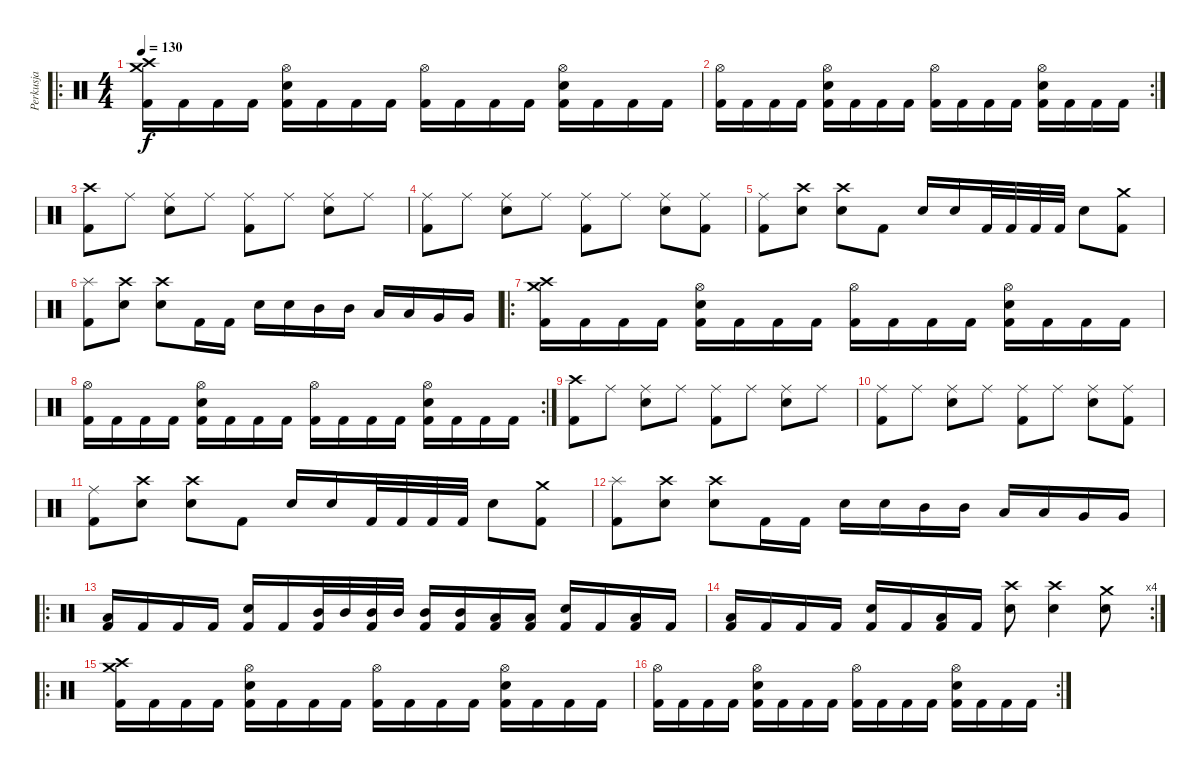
\track ("Perkusja" "Perkusja") {instrument percussion}
\staff {score}
\articulation defaults
\ro
\ts (4 4)
\tempo 130
\clef neutral
\ks c
("Kick (hit) 2" "Crash high (hit)" "Crash medium (hit)").16{dy f} "Kick (hit) 2".16 "Kick (hit) 2".16 "Kick (hit) 2".16 ("Kick (hit) 2" "Snare (hit) 2" "Hi-Hat (open)").16 "Kick (hit) 2".16 "Kick (hit) 2".16 "Kick (hit) 2".16 ("Kick (hit) 2" "Hi-Hat (open)").16 "Kick (hit) 2".16 "Kick (hit) 2".16 "Kick (hit) 2".16 ("Kick (hit) 2" "Snare (hit) 2" "Hi-Hat (open)").16 "Kick (hit) 2".16 "Kick (hit) 2".16 "Kick (hit) 2".16 |
\rc 2
("Kick (hit) 2" "Hi-Hat (open)").16 "Kick (hit) 2".16 "Kick (hit) 2".16 "Kick (hit) 2".16 ("Kick (hit) 2" "Snare (hit) 2" "Hi-Hat (open)").16 "Kick (hit) 2".16 "Kick (hit) 2".16 "Kick (hit) 2".16 ("Kick (hit) 2" "Hi-Hat (open)").16 "Kick (hit) 2".16 "Kick (hit) 2".16 "Kick (hit) 2".16 ("Kick (hit) 2" "Snare (hit) 2" "Hi-Hat (open)").16 "Kick (hit) 2".16 "Kick (hit) 2".16 "Kick (hit) 2".16 |
("Kick (hit) 2" "Crash high (hit)").8 "Ride (middle)".8 ("Snare (hit) 2" "Ride (middle)").8 "Ride (middle)".8 ("Kick (hit) 2" "Ride (middle)").8 "Ride (middle)".8 ("Snare (hit) 2" "Ride (middle)").8 "Ride (middle)".8 |
("Kick (hit) 2" "Ride (middle)").8 "Ride (middle)".8 ("Snare (hit) 2" "Ride (middle)").8 "Ride (middle)".8 ("Kick (hit) 2" "Ride (middle)").8 "Ride (middle)".8 ("Snare (hit) 2" "Ride (middle)").8 ("Kick (hit) 2" "Ride (middle)").8 |
("Ride (middle)" "Kick (hit) 2").8 ("Snare (hit) 2" "Crash high (hit)").8 ("Snare (hit) 2" "Crash high (hit)").8 "Kick (hit) 2".8 "Snare (hit) 2".16 "Snare (hit) 2".16 "Kick (hit) 2".32 "Kick (hit) 2".32 "Kick (hit) 2".32 "Kick (hit) 2".32 "Snare (hit) 2".8 ("Crash medium (hit)" "Kick (hit) 2").8 |
("Kick (hit) 2" "Splash (hit)").8 ("Snare (hit) 2" "Crash high (hit)").8 ("Snare (hit) 2" "Crash high (hit)").8 "Kick (hit) 2".16 "Kick (hit) 2".16 "Snare (hit) 2".16 "Snare (hit) 2".16 "Mid Tom (hit)".16 "Mid Tom (hit)".16 "Low Tom (hit)".16 "Low Tom (hit)".16 "Very Low Tom (hit)".16 "Very Low Tom (hit)".16 |
\ro
("Kick (hit) 2" "Crash high (hit)" "Crash medium (hit)").16 "Kick (hit) 2".16 "Kick (hit) 2".16 "Kick (hit) 2".16 ("Kick (hit) 2" "Snare (hit) 2" "Hi-Hat (open)").16 "Kick (hit) 2".16 "Kick (hit) 2".16 "Kick (hit) 2".16 ("Kick (hit) 2" "Hi-Hat (open)").16 "Kick (hit) 2".16 "Kick (hit) 2".16 "Kick (hit) 2".16 ("Kick (hit) 2" "Snare (hit) 2" "Hi-Hat (open)").16 "Kick (hit) 2".16 "Kick (hit) 2".16 "Kick (hit) 2".16 |
\rc 2
("Kick (hit) 2" "Hi-Hat (open)").16 "Kick (hit) 2".16 "Kick (hit) 2".16 "Kick (hit) 2".16 ("Kick (hit) 2" "Snare (hit) 2" "Hi-Hat (open)").16 "Kick (hit) 2".16 "Kick (hit) 2".16 "Kick (hit) 2".16 ("Kick (hit) 2" "Hi-Hat (open)").16 "Kick (hit) 2".16 "Kick (hit) 2".16 "Kick (hit) 2".16 ("Kick (hit) 2" "Snare (hit) 2" "Hi-Hat (open)").16 "Kick (hit) 2".16 "Kick (hit) 2".16 "Kick (hit) 2".16 |
("Kick (hit) 2" "Crash high (hit)").8 "Ride (middle)".8 ("Snare (hit) 2" "Ride (middle)").8 "Ride (middle)".8 ("Kick (hit) 2" "Ride (middle)").8 "Ride (middle)".8 ("Snare (hit) 2" "Ride (middle)").8 "Ride (middle)".8 |
("Kick (hit) 2" "Ride (middle)").8 "Ride (middle)".8 ("Snare (hit) 2" "Ride (middle)").8 "Ride (middle)".8 ("Kick (hit) 2" "Ride (middle)").8 "Ride (middle)".8 ("Snare (hit) 2" "Ride (middle)").8 ("Kick (hit) 2" "Ride (middle)").8 |
("Ride (middle)" "Kick (hit) 2").8 ("Snare (hit) 2" "Crash high (hit)").8 ("Snare (hit) 2" "Crash high (hit)").8 "Kick (hit) 2".8 "Snare (hit) 2".16 "Snare (hit) 2".16 "Kick (hit) 2".32 "Kick (hit) 2".32 "Kick (hit) 2".32 "Kick (hit) 2".32 "Snare (hit) 2".8 ("Crash medium (hit)" "Kick (hit) 2").8 |
("Kick (hit) 2" "Splash (hit)").8 ("Snare (hit) 2" "Crash high (hit)").8 ("Snare (hit) 2" "Crash high (hit)").8 "Kick (hit) 2".16 "Kick (hit) 2".16 "Snare (hit) 2".16 "Snare (hit) 2".16 "Mid Tom (hit)".16 "Mid Tom (hit)".16 "Low Tom (hit)".16 "Low Tom (hit)".16 "Very Low Tom (hit)".16 "Very Low Tom (hit)".16 |
\ro
("Kick (hit) 2" "Low Floor Tom (hit)").16 "Kick (hit) 2".16 "Kick (hit) 2".16 "Kick (hit) 2".16 ("Kick (hit) 2" "Snare (hit) 2").16 "Kick (hit) 2".16 ("Kick (hit) 2" "Mid Tom (hit)").32 "Mid Tom (hit)".32 ("Kick (hit) 2" "Mid Tom (hit)").32 "Mid Tom (hit)".32 ("Kick (hit) 2" "Mid Tom (hit)").16 ("Kick (hit) 2" "Mid Tom (hit)").16 ("Kick (hit) 2" "Low Tom (hit)").16 ("Kick (hit) 2" "Low Tom (hit)").16 ("Kick (hit) 2" "Snare (hit) 2").16 "Kick (hit) 2".16 ("Kick (hit) 2" "Low Floor Tom (hit)").16 "Kick (hit) 2".16 |
\rc 4
("Kick (hit) 2" "Low Floor Tom (hit)").16 "Kick (hit) 2".16 "Kick (hit) 2".16 "Kick (hit) 2".16 ("Kick (hit) 2" "Snare (hit) 2").16 "Kick (hit) 2".16 ("Kick (hit) 2" "Low Floor Tom (hit)").16 "Kick (hit) 2".16 ("Crash high (hit)" "Snare (hit) 2").8 ("Crash high (hit)" "Snare (hit) 2").4 ("Crash medium (hit)" "Snare (hit) 2").8 |
\ro
("Kick (hit) 2" "Crash high (hit)" "Crash medium (hit)").16 "Kick (hit) 2".16 "Kick (hit) 2".16 "Kick (hit) 2".16 ("Kick (hit) 2" "Snare (hit) 2" "Hi-Hat (open)").16 "Kick (hit) 2".16 "Kick (hit) 2".16 "Kick (hit) 2".16 ("Kick (hit) 2" "Hi-Hat (open)").16 "Kick (hit) 2".16 "Kick (hit) 2".16 "Kick (hit) 2".16 ("Kick (hit) 2" "Snare (hit) 2" "Hi-Hat (open)").16 "Kick (hit) 2".16 "Kick (hit) 2".16 "Kick (hit) 2".16 |
\rc 2
("Kick (hit) 2" "Hi-Hat (open)").16 "Kick (hit) 2".16 "Kick (hit) 2".16 "Kick (hit) 2".16 ("Kick (hit) 2" "Snare (hit) 2" "Hi-Hat (open)").16 "Kick (hit) 2".16 "Kick (hit) 2".16 "Kick (hit) 2".16 ("Kick (hit) 2" "Hi-Hat (open)").16 "Kick (hit) 2".16 "Kick (hit) 2".16 "Kick (hit) 2".16 ("Kick (hit) 2" "Snare (hit) 2" "Hi-Hat (open)").16 "Kick (hit) 2".16 "Kick (hit) 2".16 "Kick (hit) 2".16
